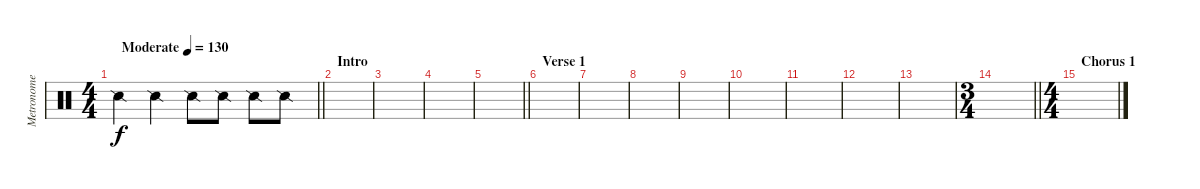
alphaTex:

\track ("Metronome" "Metronome") {instrument percussion}
\staff {score}
\articulation defaults
\ts (4 4)
\tempo (130 "Moderate")
\clef neutral
\barLineRight lightlight
\ks c "Snare (side stick) 2".4{dy f} "Snare (side stick) 2".4 "Snare (side stick) 2".8 "Snare (side stick) 2".8 "Snare (side stick) 2".8 "Snare (side stick) 2".8
|
\section ("" "Intro")
|
|
|
\barLineRight lightlight
|
\section ("" "Verse 1 ")
|
|
|
|
|
|
|
|
\ts (3 4)
\barLineRight lightlight
|
\ts (4 4)
\section ("" "Chorus 1")
